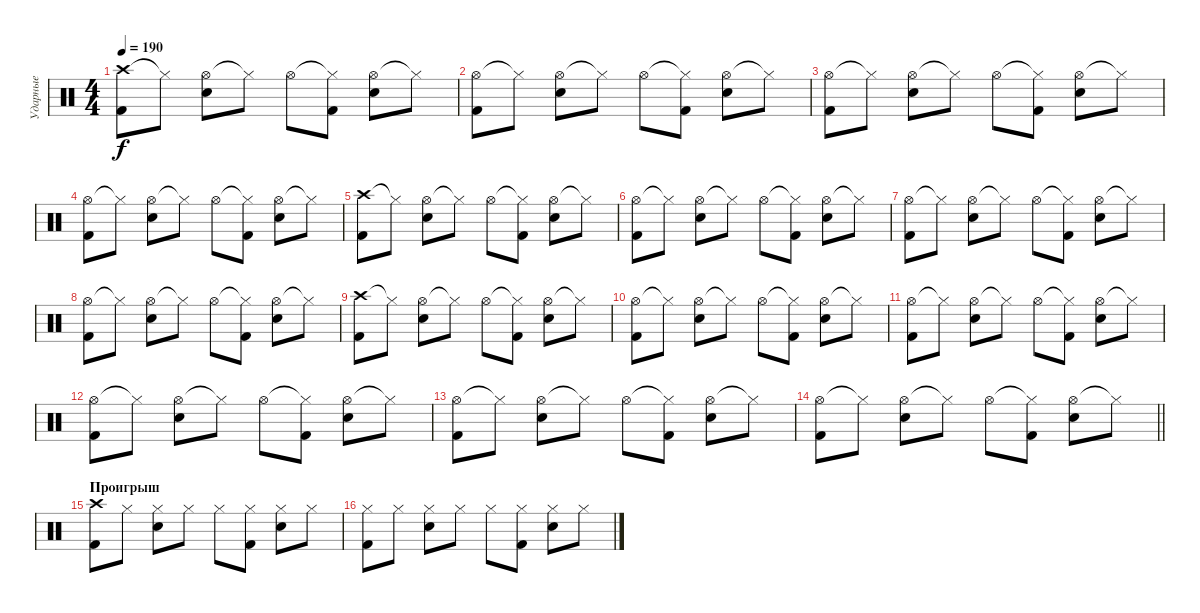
\track ("Ударные" "Ударные") {instrument percussion}
\staff {score}
\articulation defaults
\ts (4 4)
\tempo 190
\clef neutral
\ks c
("Crash high (hit)" "Kick (hit) 2").8{dy f} "Hi-Hat (closed)"{t}.8 ("Hi-Hat (open)" "Snare (hit) 2").8 "Hi-Hat (closed)"{t}.8 "Hi-Hat (open)".8 ("Hi-Hat (closed)"{t} "Kick (hit) 2").8 ("Hi-Hat (open)" "Snare (hit) 2").8 "Hi-Hat (closed)"{t}.8 |
("Hi-Hat (open)" "Kick (hit) 2").8 "Hi-Hat (closed)"{t}.8 ("Hi-Hat (open)" "Snare (hit) 2").8 "Hi-Hat (closed)"{t}.8 "Hi-Hat (open)".8 ("Hi-Hat (closed)"{t} "Kick (hit) 2").8 ("Hi-Hat (open)" "Snare (hit) 2").8 "Hi-Hat (closed)"{t}.8 |
("Hi-Hat (open)" "Kick (hit) 2").8 "Hi-Hat (closed)"{t}.8 ("Hi-Hat (open)" "Snare (hit) 2").8 "Hi-Hat (closed)"{t}.8 "Hi-Hat (open)".8 ("Hi-Hat (closed)"{t} "Kick (hit) 2").8 ("Hi-Hat (open)" "Snare (hit) 2").8 "Hi-Hat (closed)"{t}.8 |
("Hi-Hat (open)" "Kick (hit) 2").8 "Hi-Hat (closed)"{t}.8 ("Hi-Hat (open)" "Snare (hit) 2").8 "Hi-Hat (closed)"{t}.8 "Hi-Hat (open)".8 ("Hi-Hat (closed)"{t} "Kick (hit) 2").8 ("Hi-Hat (open)" "Snare (hit) 2").8 "Hi-Hat (closed)"{t}.8 |
("Crash high (hit)" "Kick (hit) 2").8 "Hi-Hat (closed)"{t}.8 ("Hi-Hat (open)" "Snare (hit) 2").8 "Hi-Hat (closed)"{t}.8 "Hi-Hat (open)".8 ("Hi-Hat (closed)"{t} "Kick (hit) 2").8 ("Hi-Hat (open)" "Snare (hit) 2").8 "Hi-Hat (closed)"{t}.8 |
("Hi-Hat (open)" "Kick (hit) 2").8 "Hi-Hat (closed)"{t}.8 ("Hi-Hat (open)" "Snare (hit) 2").8 "Hi-Hat (closed)"{t}.8 "Hi-Hat (open)".8 ("Hi-Hat (closed)"{t} "Kick (hit) 2").8 ("Hi-Hat (open)" "Snare (hit) 2").8 "Hi-Hat (closed)"{t}.8 |
("Hi-Hat (open)" "Kick (hit) 2").8 "Hi-Hat (closed)"{t}.8 ("Hi-Hat (open)" "Snare (hit) 2").8 "Hi-Hat (closed)"{t}.8 "Hi-Hat (open)".8 ("Hi-Hat (closed)"{t} "Kick (hit) 2").8 ("Hi-Hat (open)" "Snare (hit) 2").8 "Hi-Hat (closed)"{t}.8 |
("Hi-Hat (open)" "Kick (hit) 2").8 "Hi-Hat (closed)"{t}.8 ("Hi-Hat (open)" "Snare (hit) 2").8 "Hi-Hat (closed)"{t}.8 "Hi-Hat (open)".8 ("Hi-Hat (closed)"{t} "Kick (hit) 2").8 ("Hi-Hat (open)" "Snare (hit) 2").8 "Hi-Hat (closed)"{t}.8 |
("Crash high (hit)" "Kick (hit) 2").8 "Hi-Hat (closed)"{t}.8 ("Hi-Hat (open)" "Snare (hit) 2").8 "Hi-Hat (closed)"{t}.8 "Hi-Hat (open)".8 ("Hi-Hat (closed)"{t} "Kick (hit) 2").8 ("Hi-Hat (open)" "Snare (hit) 2").8 "Hi-Hat (closed)"{t}.8 |
("Hi-Hat (open)" "Kick (hit) 2").8 "Hi-Hat (closed)"{t}.8 ("Hi-Hat (open)" "Snare (hit) 2").8 "Hi-Hat (closed)"{t}.8 "Hi-Hat (open)".8 ("Hi-Hat (closed)"{t} "Kick (hit) 2").8 ("Hi-Hat (open)" "Snare (hit) 2").8 "Hi-Hat (closed)"{t}.8 |
("Hi-Hat (open)" "Kick (hit) 2").8 "Hi-Hat (closed)"{t}.8 ("Hi-Hat (open)" "Snare (hit) 2").8 "Hi-Hat (closed)"{t}.8 "Hi-Hat (open)".8 ("Hi-Hat (closed)"{t} "Kick (hit) 2").8 ("Hi-Hat (open)" "Snare (hit) 2").8 "Hi-Hat (closed)"{t}.8 |
("Hi-Hat (open)" "Kick (hit) 2").8 "Hi-Hat (closed)"{t}.8 ("Hi-Hat (open)" "Snare (hit) 2").8 "Hi-Hat (closed)"{t}.8 "Hi-Hat (open)".8 ("Hi-Hat (closed)"{t} "Kick (hit) 2").8 ("Hi-Hat (open)" "Snare (hit) 2").8 "Hi-Hat (closed)"{t}.8 |
("Hi-Hat (open)" "Kick (hit) 2").8 "Hi-Hat (closed)"{t}.8 ("Hi-Hat (open)" "Snare (hit) 2").8 "Hi-Hat (closed)"{t}.8 "Hi-Hat (open)".8 ("Hi-Hat (closed)"{t} "Kick (hit) 2").8 ("Hi-Hat (open)" "Snare (hit) 2").8 "Hi-Hat (closed)"{t}.8 |
\barLineRight lightlight
("Hi-Hat (open)" "Kick (hit) 2").8 "Hi-Hat (closed)"{t}.8 ("Hi-Hat (open)" "Snare (hit) 2").8 "Hi-Hat (closed)"{t}.8 "Hi-Hat (open)".8 ("Hi-Hat (closed)"{t} "Kick (hit) 2").8 ("Hi-Hat (open)" "Snare (hit) 2").8 "Hi-Hat (closed)"{t}.8 |
\section ("" "Проигрыш")
("Crash high (hit)" "Kick (hit) 2").8 "Hi-Hat (closed)".8 ("Hi-Hat (closed)" "Snare (hit) 2").8 "Hi-Hat (closed)".8 "Hi-Hat (closed)".8 ("Hi-Hat (closed)" "Kick (hit) 2").8 ("Hi-Hat (closed)" "Snare (hit) 2").8 "Hi-Hat (closed)".8 |
("Hi-Hat (closed)" "Kick (hit) 2").8 "Hi-Hat (closed)".8 ("Hi-Hat (closed)" "Snare (hit) 2").8 "Hi-Hat (closed)".8 "Hi-Hat (closed)".8 ("Hi-Hat (closed)" "Kick (hit) 2").8 ("Hi-Hat (closed)" "Snare (hit) 2").8 "Hi-Hat (closed)".8
